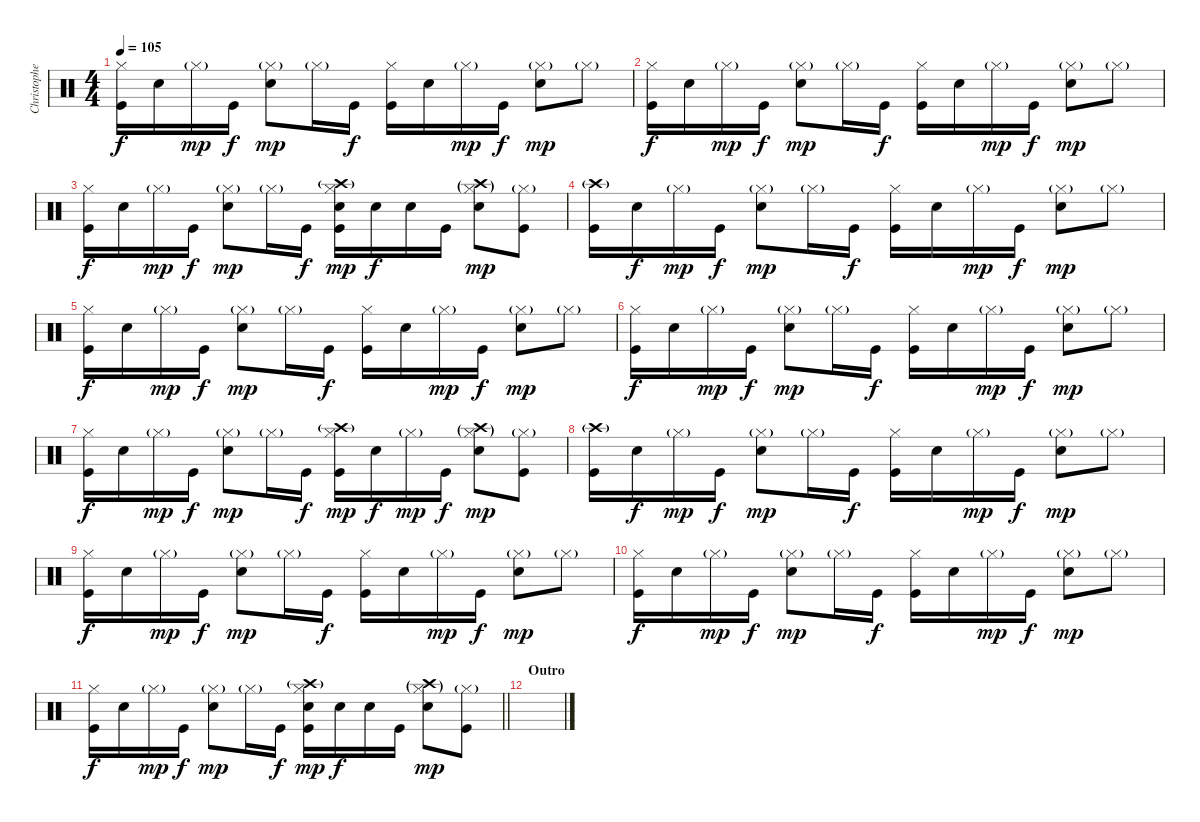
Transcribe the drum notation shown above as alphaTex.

\track ("Christopher - Drums" "Christophe") {instrument percussion}
\staff {score}
\articulation defaults
\ts (4 4)
\tempo 105
\clef neutral
\ks c
("Hi-Hat (closed)" "Kick (hit)").16{dy f} "Snare (hit) 2".16 "Hi-Hat (closed)"{g}.16{dy mp} "Kick (hit)".16{dy f} ("Hi-Hat (closed)"{g} "Snare (hit) 2").8{dy mp} "Hi-Hat (closed)"{g}.16 "Kick (hit)".16{dy f} ("Hi-Hat (closed)" "Kick (hit)").16 "Snare (hit) 2".16 "Hi-Hat (closed)"{g}.16{dy mp} "Kick (hit)".16{dy f} ("Hi-Hat (closed)"{g} "Snare (hit) 2").8{dy mp} "Hi-Hat (closed)"{g}.8 |
("Hi-Hat (closed)" "Kick (hit)").16{dy f} "Snare (hit) 2".16 "Hi-Hat (closed)"{g}.16{dy mp} "Kick (hit)".16{dy f} ("Hi-Hat (closed)"{g} "Snare (hit) 2").8{dy mp} "Hi-Hat (closed)"{g}.16 "Kick (hit)".16{dy f} ("Hi-Hat (closed)" "Kick (hit)").16 "Snare (hit) 2".16 "Hi-Hat (closed)"{g}.16{dy mp} "Kick (hit)".16{dy f} ("Hi-Hat (closed)"{g} "Snare (hit) 2").8{dy mp} "Hi-Hat (closed)"{g}.8 |
("Hi-Hat (closed)" "Kick (hit)").16{dy f} "Snare (hit) 2".16 "Hi-Hat (closed)"{g}.16{dy mp} "Kick (hit)".16{dy f} ("Hi-Hat (closed)"{g} "Snare (hit) 2").8{dy mp} "Hi-Hat (closed)"{g}.16 "Kick (hit)".16{dy f} ("Crash high (hit)"{g} "Hi-Hat (closed)" "Snare (hit) 2" "Kick (hit)").16{dy mp} "Snare (hit) 2".16{dy f} "Snare (hit) 2".16 "Kick (hit)".16 ("Crash high (hit)"{g} "Hi-Hat (closed)"{g} "Snare (hit) 2").8{dy mp} ("Hi-Hat (closed)"{g} "Kick (hit)").8 |
("Crash high (hit)"{g} "Kick (hit)").16 "Snare (hit) 2".16{dy f} "Hi-Hat (closed)"{g}.16{dy mp} "Kick (hit)".16{dy f} ("Hi-Hat (closed)"{g} "Snare (hit) 2").8{dy mp} "Hi-Hat (closed)"{g}.16 "Kick (hit)".16{dy f} ("Hi-Hat (closed)" "Kick (hit)").16 "Snare (hit) 2".16 "Hi-Hat (closed)"{g}.16{dy mp} "Kick (hit)".16{dy f} ("Hi-Hat (closed)"{g} "Snare (hit) 2").8{dy mp} "Hi-Hat (closed)"{g}.8 |
("Hi-Hat (closed)" "Kick (hit)").16{dy f} "Snare (hit) 2".16 "Hi-Hat (closed)"{g}.16{dy mp} "Kick (hit)".16{dy f} ("Hi-Hat (closed)"{g} "Snare (hit) 2").8{dy mp} "Hi-Hat (closed)"{g}.16 "Kick (hit)".16{dy f} ("Hi-Hat (closed)" "Kick (hit)").16 "Snare (hit) 2".16 "Hi-Hat (closed)"{g}.16{dy mp} "Kick (hit)".16{dy f} ("Hi-Hat (closed)"{g} "Snare (hit) 2").8{dy mp} "Hi-Hat (closed)"{g}.8 |
("Hi-Hat (closed)" "Kick (hit)").16{dy f} "Snare (hit) 2".16 "Hi-Hat (closed)"{g}.16{dy mp} "Kick (hit)".16{dy f} ("Hi-Hat (closed)"{g} "Snare (hit) 2").8{dy mp} "Hi-Hat (closed)"{g}.16 "Kick (hit)".16{dy f} ("Hi-Hat (closed)" "Kick (hit)").16 "Snare (hit) 2".16 "Hi-Hat (closed)"{g}.16{dy mp} "Kick (hit)".16{dy f} ("Hi-Hat (closed)"{g} "Snare (hit) 2").8{dy mp} "Hi-Hat (closed)"{g}.8 |
("Hi-Hat (closed)" "Kick (hit)").16{dy f} "Snare (hit) 2".16 "Hi-Hat (closed)"{g}.16{dy mp} "Kick (hit)".16{dy f} ("Hi-Hat (closed)"{g} "Snare (hit) 2").8{dy mp} "Hi-Hat (closed)"{g}.16 "Kick (hit)".16{dy f} ("Crash high (hit)"{g} "Hi-Hat (closed)" "Kick (hit)").16{dy mp} "Snare (hit) 2".16{dy f} "Hi-Hat (closed)"{g}.16{dy mp} "Kick (hit)".16{dy f} ("Crash high (hit)"{g} "Hi-Hat (closed)"{g} "Snare (hit) 2").8{dy mp} ("Hi-Hat (closed)"{g} "Kick (hit)").8 |
("Crash high (hit)"{g} "Kick (hit)").16 "Snare (hit) 2".16{dy f} "Hi-Hat (closed)"{g}.16{dy mp} "Kick (hit)".16{dy f} ("Hi-Hat (closed)"{g} "Snare (hit) 2").8{dy mp} "Hi-Hat (closed)"{g}.16 "Kick (hit)".16{dy f} ("Hi-Hat (closed)" "Kick (hit)").16 "Snare (hit) 2".16 "Hi-Hat (closed)"{g}.16{dy mp} "Kick (hit)".16{dy f} ("Hi-Hat (closed)"{g} "Snare (hit) 2").8{dy mp} "Hi-Hat (closed)"{g}.8 |
("Hi-Hat (closed)" "Kick (hit)").16{dy f} "Snare (hit) 2".16 "Hi-Hat (closed)"{g}.16{dy mp} "Kick (hit)".16{dy f} ("Hi-Hat (closed)"{g} "Snare (hit) 2").8{dy mp} "Hi-Hat (closed)"{g}.16 "Kick (hit)".16{dy f} ("Hi-Hat (closed)" "Kick (hit)").16 "Snare (hit) 2".16 "Hi-Hat (closed)"{g}.16{dy mp} "Kick (hit)".16{dy f} ("Hi-Hat (closed)"{g} "Snare (hit) 2").8{dy mp} "Hi-Hat (closed)"{g}.8 |
("Hi-Hat (closed)" "Kick (hit)").16{dy f} "Snare (hit) 2".16 "Hi-Hat (closed)"{g}.16{dy mp} "Kick (hit)".16{dy f} ("Hi-Hat (closed)"{g} "Snare (hit) 2").8{dy mp} "Hi-Hat (closed)"{g}.16 "Kick (hit)".16{dy f} ("Hi-Hat (closed)" "Kick (hit)").16 "Snare (hit) 2".16 "Hi-Hat (closed)"{g}.16{dy mp} "Kick (hit)".16{dy f} ("Hi-Hat (closed)"{g} "Snare (hit) 2").8{dy mp} "Hi-Hat (closed)"{g}.8 |
\barLineRight lightlight
("Hi-Hat (closed)" "Kick (hit)").16{dy f} "Snare (hit) 2".16 "Hi-Hat (closed)"{g}.16{dy mp} "Kick (hit)".16{dy f} ("Hi-Hat (closed)"{g} "Snare (hit) 2").8{dy mp} "Hi-Hat (closed)"{g}.16 "Kick (hit)".16{dy f} ("Crash high (hit)"{g} "Hi-Hat (closed)" "Snare (hit) 2" "Kick (hit)").16{dy mp} "Snare (hit) 2".16{dy f} "Snare (hit) 2".16 "Kick (hit)".16 ("Crash high (hit)"{g} "Hi-Hat (closed)"{g} "Snare (hit) 2").8{dy mp} ("Hi-Hat (closed)"{g} "Kick (hit)").8 |
\section ("" "Outro")
